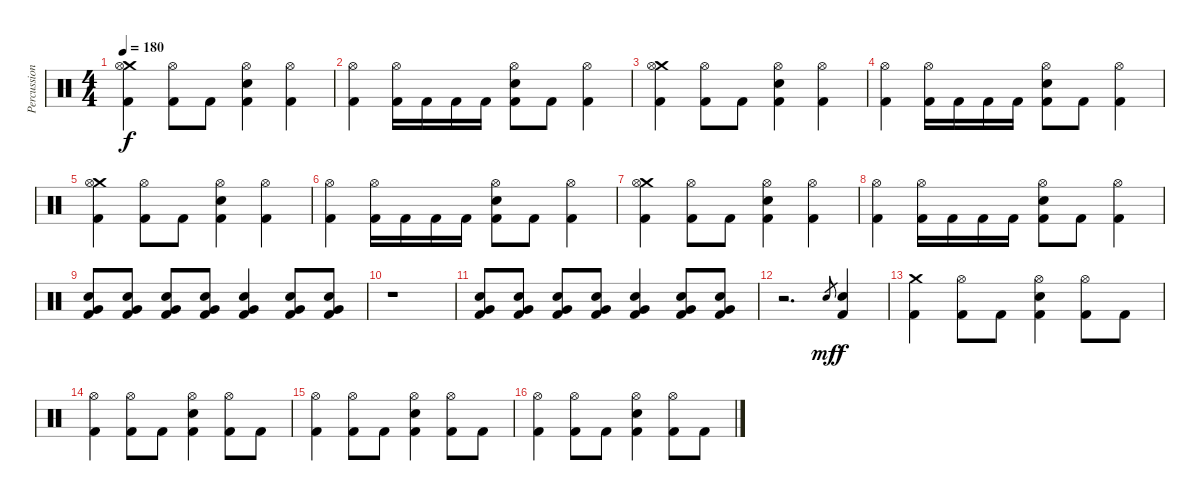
\track ("Percussion" "Percussion") {instrument percussion}
\staff {score}
\articulation defaults
\ts (4 4)
\tempo 180
\clef neutral
\ks c
("Crash medium (hit)" "Hi-Hat (open)" "Kick (hit) 2").4{dy f} ("Hi-Hat (open)" "Kick (hit) 2").8 "Kick (hit) 2".8 ("Hi-Hat (open)" "Snare (hit) 2" "Kick (hit) 2").4 ("Hi-Hat (open)" "Kick (hit) 2").4 |
("Hi-Hat (open)" "Kick (hit) 2").4 ("Hi-Hat (open)" "Kick (hit) 2").16 "Kick (hit) 2".16 "Kick (hit) 2".16 "Kick (hit) 2".16 ("Hi-Hat (open)" "Snare (hit) 2" "Kick (hit) 2").8 "Kick (hit) 2".8 ("Hi-Hat (open)" "Kick (hit) 2").4 |
("Crash medium (hit)" "Hi-Hat (open)" "Kick (hit) 2").4 ("Hi-Hat (open)" "Kick (hit) 2").8 "Kick (hit) 2".8 ("Hi-Hat (open)" "Snare (hit) 2" "Kick (hit) 2").4 ("Hi-Hat (open)" "Kick (hit) 2").4 |
("Hi-Hat (open)" "Kick (hit) 2").4 ("Hi-Hat (open)" "Kick (hit) 2").16 "Kick (hit) 2".16 "Kick (hit) 2".16 "Kick (hit) 2".16 ("Hi-Hat (open)" "Snare (hit) 2" "Kick (hit) 2").8 "Kick (hit) 2".8 ("Hi-Hat (open)" "Kick (hit) 2").4 |
("Crash medium (hit)" "Hi-Hat (open)" "Kick (hit) 2").4 ("Hi-Hat (open)" "Kick (hit) 2").8 "Kick (hit) 2".8 ("Hi-Hat (open)" "Snare (hit) 2" "Kick (hit) 2").4 ("Hi-Hat (open)" "Kick (hit) 2").4 |
("Hi-Hat (open)" "Kick (hit) 2").4 ("Hi-Hat (open)" "Kick (hit) 2").16 "Kick (hit) 2".16 "Kick (hit) 2".16 "Kick (hit) 2".16 ("Hi-Hat (open)" "Snare (hit) 2" "Kick (hit) 2").8 "Kick (hit) 2".8 ("Hi-Hat (open)" "Kick (hit) 2").4 |
("Crash medium (hit)" "Hi-Hat (open)" "Kick (hit) 2").4 ("Hi-Hat (open)" "Kick (hit) 2").8 "Kick (hit) 2".8 ("Hi-Hat (open)" "Snare (hit) 2" "Kick (hit) 2").4 ("Hi-Hat (open)" "Kick (hit) 2").4 |
("Hi-Hat (open)" "Kick (hit) 2").4 ("Hi-Hat (open)" "Kick (hit) 2").16 "Kick (hit) 2".16 "Kick (hit) 2".16 "Kick (hit) 2".16 ("Hi-Hat (open)" "Snare (hit) 2" "Kick (hit) 2").8 "Kick (hit) 2".8 ("Hi-Hat (open)" "Kick (hit) 2").4 |
("Very Low Tom (hit)" "Snare (hit) 2" "Kick (hit) 2").8 ("Very Low Tom (hit)" "Snare (hit) 2" "Kick (hit) 2").8 ("Very Low Tom (hit)" "Snare (hit) 2" "Kick (hit) 2").8 ("Very Low Tom (hit)" "Snare (hit) 2" "Kick (hit) 2").8 ("Very Low Tom (hit)" "Snare (hit) 2" "Kick (hit) 2").4 ("Very Low Tom (hit)" "Snare (hit) 2" "Kick (hit) 2").8 ("Very Low Tom (hit)" "Snare (hit) 2" "Kick (hit) 2").8 |
r.1 |
("Very Low Tom (hit)" "Snare (hit) 2" "Kick (hit) 2").8 ("Very Low Tom (hit)" "Snare (hit) 2" "Kick (hit) 2").8 ("Very Low Tom (hit)" "Snare (hit) 2" "Kick (hit) 2").8 ("Very Low Tom (hit)" "Snare (hit) 2" "Kick (hit) 2").8 ("Very Low Tom (hit)" "Snare (hit) 2" "Kick (hit) 2").4 ("Very Low Tom (hit)" "Snare (hit) 2" "Kick (hit) 2").8 ("Very Low Tom (hit)" "Snare (hit) 2" "Kick (hit) 2").8 |
r.2{d} "Snare (hit)".8{gr dy mf} ("Snare (hit) 2" "Kick (hit) 2").4{dy f} |
("Crash medium (hit)" "Kick (hit) 2").4 ("Hi-Hat (open)" "Kick (hit) 2").8 "Kick (hit) 2".8 ("Hi-Hat (open)" "Snare (hit) 2" "Kick (hit) 2").4 ("Hi-Hat (open)" "Kick (hit) 2").8 "Kick (hit) 2".8 |
("Hi-Hat (open)" "Kick (hit) 2").4 ("Hi-Hat (open)" "Kick (hit) 2").8 "Kick (hit) 2".8 ("Hi-Hat (open)" "Snare (hit) 2" "Kick (hit) 2").4 ("Hi-Hat (open)" "Kick (hit) 2").8 "Kick (hit) 2".8 |
("Hi-Hat (open)" "Kick (hit) 2").4 ("Hi-Hat (open)" "Kick (hit) 2").8 "Kick (hit) 2".8 ("Hi-Hat (open)" "Snare (hit) 2" "Kick (hit) 2").4 ("Hi-Hat (open)" "Kick (hit) 2").8 "Kick (hit) 2".8 |
("Hi-Hat (open)" "Kick (hit) 2").4 ("Hi-Hat (open)" "Kick (hit) 2").8 "Kick (hit) 2".8 ("Hi-Hat (open)" "Snare (hit) 2" "Kick (hit) 2").4 ("Hi-Hat (open)" "Kick (hit) 2").8 "Kick (hit) 2".8
